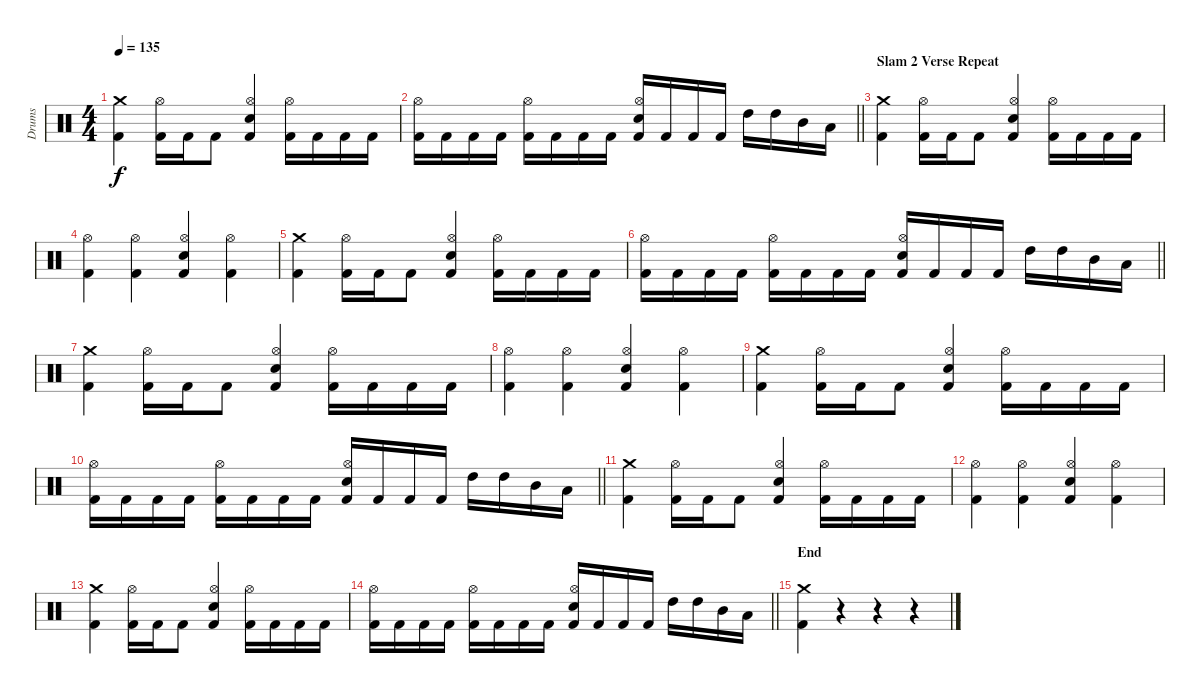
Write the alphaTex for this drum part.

\track ("Drums" "Drums") {instrument percussion}
\staff {score}
\articulation defaults
\ts (4 4)
\tempo 135
\clef neutral
\ks c
("Crash medium (hit)" "Kick (hit) 2").4{dy f} ("Hi-Hat (open)" "Kick (hit) 2").16 "Kick (hit) 2".16 "Kick (hit) 2".8 ("Hi-Hat (open)" "Electric Snare (hit)" "Kick (hit) 2").4 ("Hi-Hat (open)" "Kick (hit) 2").16 "Kick (hit) 2".16 "Kick (hit) 2".16 "Kick (hit) 2".16 |
\barLineRight lightlight
("Hi-Hat (open)" "Kick (hit) 2").16 "Kick (hit) 2".16 "Kick (hit) 2".16 "Kick (hit) 2".16 ("Hi-Hat (open)" "Kick (hit) 2").16 "Kick (hit) 2".16 "Kick (hit) 2".16 "Kick (hit) 2".16 ("Hi-Hat (open)" "Electric Snare (hit)" "Kick (hit) 2").16 "Kick (hit) 2".16 "Kick (hit) 2".16 "Kick (hit) 2".16 "High Tom (hit)".16 "High Tom (hit)".16 "Mid Tom (hit)".16 "Low Tom (hit)".16 |
\section ("" "Slam 2 Verse Repeat")
("Crash medium (hit)" "Kick (hit) 2").4 ("Hi-Hat (open)" "Kick (hit) 2").16 "Kick (hit) 2".16 "Kick (hit) 2".8 ("Hi-Hat (open)" "Electric Snare (hit)" "Kick (hit) 2").4 ("Hi-Hat (open)" "Kick (hit) 2").16 "Kick (hit) 2".16 "Kick (hit) 2".16 "Kick (hit) 2".16 |
("Hi-Hat (open)" "Kick (hit) 2").4 ("Hi-Hat (open)" "Kick (hit) 2").4 ("Hi-Hat (open)" "Electric Snare (hit)" "Kick (hit) 2").4 ("Hi-Hat (open)" "Kick (hit) 2").4 |
("Crash medium (hit)" "Kick (hit) 2").4 ("Hi-Hat (open)" "Kick (hit) 2").16 "Kick (hit) 2".16 "Kick (hit) 2".8 ("Hi-Hat (open)" "Electric Snare (hit)" "Kick (hit) 2").4 ("Hi-Hat (open)" "Kick (hit) 2").16 "Kick (hit) 2".16 "Kick (hit) 2".16 "Kick (hit) 2".16 |
\barLineRight lightlight
("Hi-Hat (open)" "Kick (hit) 2").16 "Kick (hit) 2".16 "Kick (hit) 2".16 "Kick (hit) 2".16 ("Hi-Hat (open)" "Kick (hit) 2").16 "Kick (hit) 2".16 "Kick (hit) 2".16 "Kick (hit) 2".16 ("Hi-Hat (open)" "Electric Snare (hit)" "Kick (hit) 2").16 "Kick (hit) 2".16 "Kick (hit) 2".16 "Kick (hit) 2".16 "High Tom (hit)".16 "High Tom (hit)".16 "Mid Tom (hit)".16 "Low Tom (hit)".16 |
("Crash medium (hit)" "Kick (hit) 2").4 ("Hi-Hat (open)" "Kick (hit) 2").16 "Kick (hit) 2".16 "Kick (hit) 2".8 ("Hi-Hat (open)" "Electric Snare (hit)" "Kick (hit) 2").4 ("Hi-Hat (open)" "Kick (hit) 2").16 "Kick (hit) 2".16 "Kick (hit) 2".16 "Kick (hit) 2".16 |
("Hi-Hat (open)" "Kick (hit) 2").4 ("Hi-Hat (open)" "Kick (hit) 2").4 ("Hi-Hat (open)" "Electric Snare (hit)" "Kick (hit) 2").4 ("Hi-Hat (open)" "Kick (hit) 2").4 |
("Crash medium (hit)" "Kick (hit) 2").4 ("Hi-Hat (open)" "Kick (hit) 2").16 "Kick (hit) 2".16 "Kick (hit) 2".8 ("Hi-Hat (open)" "Electric Snare (hit)" "Kick (hit) 2").4 ("Hi-Hat (open)" "Kick (hit) 2").16 "Kick (hit) 2".16 "Kick (hit) 2".16 "Kick (hit) 2".16 |
\barLineRight lightlight
("Hi-Hat (open)" "Kick (hit) 2").16 "Kick (hit) 2".16 "Kick (hit) 2".16 "Kick (hit) 2".16 ("Hi-Hat (open)" "Kick (hit) 2").16 "Kick (hit) 2".16 "Kick (hit) 2".16 "Kick (hit) 2".16 ("Hi-Hat (open)" "Electric Snare (hit)" "Kick (hit) 2").16 "Kick (hit) 2".16 "Kick (hit) 2".16 "Kick (hit) 2".16 "High Tom (hit)".16 "High Tom (hit)".16 "Mid Tom (hit)".16 "Low Tom (hit)".16 |
("Crash medium (hit)" "Kick (hit) 2").4 ("Hi-Hat (open)" "Kick (hit) 2").16 "Kick (hit) 2".16 "Kick (hit) 2".8 ("Hi-Hat (open)" "Electric Snare (hit)" "Kick (hit) 2").4 ("Hi-Hat (open)" "Kick (hit) 2").16 "Kick (hit) 2".16 "Kick (hit) 2".16 "Kick (hit) 2".16 |
("Hi-Hat (open)" "Kick (hit) 2").4 ("Hi-Hat (open)" "Kick (hit) 2").4 ("Hi-Hat (open)" "Electric Snare (hit)" "Kick (hit) 2").4 ("Hi-Hat (open)" "Kick (hit) 2").4 |
("Crash medium (hit)" "Kick (hit) 2").4 ("Hi-Hat (open)" "Kick (hit) 2").16 "Kick (hit) 2".16 "Kick (hit) 2".8 ("Hi-Hat (open)" "Electric Snare (hit)" "Kick (hit) 2").4 ("Hi-Hat (open)" "Kick (hit) 2").16 "Kick (hit) 2".16 "Kick (hit) 2".16 "Kick (hit) 2".16 |
\barLineRight lightlight
("Hi-Hat (open)" "Kick (hit) 2").16 "Kick (hit) 2".16 "Kick (hit) 2".16 "Kick (hit) 2".16 ("Hi-Hat (open)" "Kick (hit) 2").16 "Kick (hit) 2".16 "Kick (hit) 2".16 "Kick (hit) 2".16 ("Hi-Hat (open)" "Electric Snare (hit)" "Kick (hit) 2").16 "Kick (hit) 2".16 "Kick (hit) 2".16 "Kick (hit) 2".16 "High Tom (hit)".16 "High Tom (hit)".16 "Mid Tom (hit)".16 "Low Tom (hit)".16 |
\section ("" "End")
("Crash medium (hit)" "Kick (hit) 2").4 r.4 r.4 r.4
